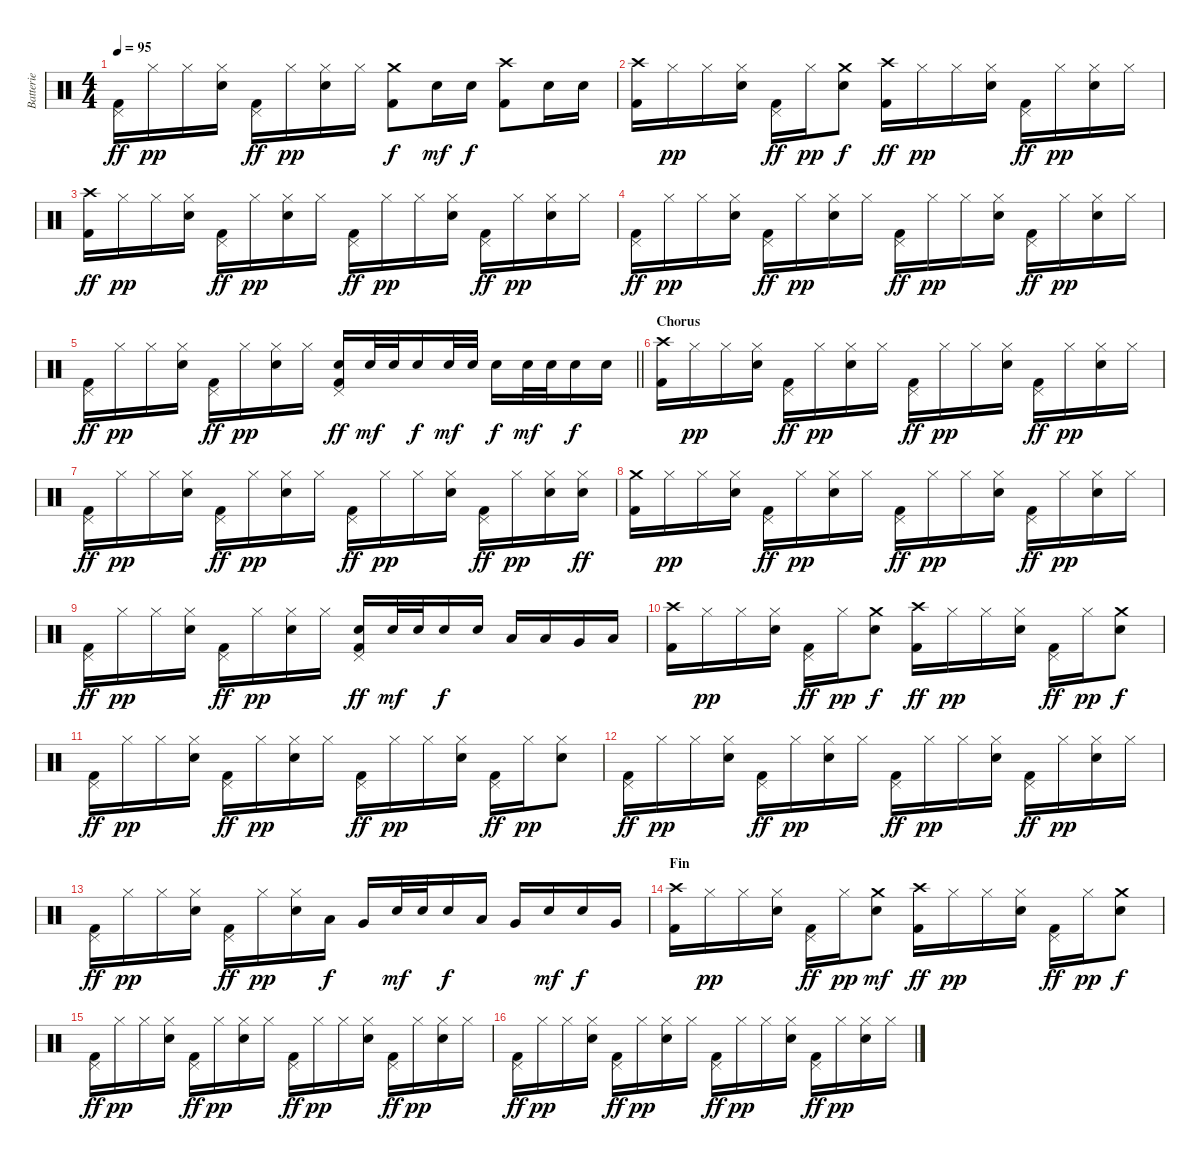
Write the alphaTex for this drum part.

\track ("Batterie" "Batterie") {instrument percussion}
\staff {score}
\articulation defaults
\ts (4 4)
\tempo 95
\clef neutral
\ks c
("Pedal Hi-Hat (hit)" "Kick (hit) 2").16{dy ff} "Hi-Hat (closed)".16{dy pp} "Hi-Hat (closed)".16 ("Hi-Hat (closed)" "Electric Snare (hit)").16 ("Pedal Hi-Hat (hit)" "Kick (hit) 2").16{dy ff} "Hi-Hat (closed)".16{dy pp} ("Hi-Hat (closed)" "Electric Snare (hit)").16 "Hi-Hat (closed)".16 ("Crash medium (hit)" "Kick (hit) 2").8{dy f} "Electric Snare (hit)".16{dy mf} "Electric Snare (hit)".16{dy f} ("Crash high (hit)" "Kick (hit) 2").8 "Electric Snare (hit)".16 "Electric Snare (hit)".16 |
("Crash high (hit)" "Kick (hit) 2").16 "Hi-Hat (closed)".16{dy pp} "Hi-Hat (closed)".16 ("Hi-Hat (closed)" "Electric Snare (hit)").16 ("Pedal Hi-Hat (hit)" "Kick (hit) 2").16{dy ff} "Hi-Hat (closed)".16{dy pp} ("Crash medium (hit)" "Electric Snare (hit)").8{dy f} ("Crash high (hit)" "Kick (hit) 2").16{dy ff} "Hi-Hat (closed)".16{dy pp} "Hi-Hat (closed)".16 ("Hi-Hat (closed)" "Electric Snare (hit)").16 ("Pedal Hi-Hat (hit)" "Kick (hit) 2").16{dy ff} "Hi-Hat (closed)".16{dy pp} ("Hi-Hat (closed)" "Electric Snare (hit)").16 "Hi-Hat (closed)".16 |
("Crash high (hit)" "Kick (hit) 2").16{dy ff} "Hi-Hat (closed)".16{dy pp} "Hi-Hat (closed)".16 ("Hi-Hat (closed)" "Electric Snare (hit)").16 ("Pedal Hi-Hat (hit)" "Kick (hit) 2").16{dy ff} "Hi-Hat (closed)".16{dy pp} ("Hi-Hat (closed)" "Electric Snare (hit)").16 "Hi-Hat (closed)".16 ("Pedal Hi-Hat (hit)" "Kick (hit) 2").16{dy ff} "Hi-Hat (closed)".16{dy pp} "Hi-Hat (closed)".16 ("Hi-Hat (closed)" "Electric Snare (hit)").16 ("Pedal Hi-Hat (hit)" "Kick (hit) 2").16{dy ff} "Hi-Hat (closed)".16{dy pp} ("Hi-Hat (closed)" "Electric Snare (hit)").16 "Hi-Hat (closed)".16 |
("Pedal Hi-Hat (hit)" "Kick (hit) 2").16{dy ff} "Hi-Hat (closed)".16{dy pp} "Hi-Hat (closed)".16 ("Hi-Hat (closed)" "Electric Snare (hit)").16 ("Pedal Hi-Hat (hit)" "Kick (hit) 2").16{dy ff} "Hi-Hat (closed)".16{dy pp} ("Hi-Hat (closed)" "Electric Snare (hit)").16 "Hi-Hat (closed)".16 ("Pedal Hi-Hat (hit)" "Kick (hit) 2").16{dy ff} "Hi-Hat (closed)".16{dy pp} "Hi-Hat (closed)".16 ("Hi-Hat (closed)" "Electric Snare (hit)").16 ("Pedal Hi-Hat (hit)" "Kick (hit) 2").16{dy ff} "Hi-Hat (closed)".16{dy pp} ("Hi-Hat (closed)" "Electric Snare (hit)").16 "Hi-Hat (closed)".16 |
\barLineRight lightlight
("Pedal Hi-Hat (hit)" "Kick (hit) 2").16{dy ff} "Hi-Hat (closed)".16{dy pp} "Hi-Hat (closed)".16 ("Hi-Hat (closed)" "Electric Snare (hit)").16 ("Pedal Hi-Hat (hit)" "Kick (hit) 2").16{dy ff} "Hi-Hat (closed)".16{dy pp} ("Hi-Hat (closed)" "Electric Snare (hit)").16 "Hi-Hat (closed)".16 ("Pedal Hi-Hat (hit)" "Electric Snare (hit)" "Kick (hit) 2").16{dy ff} "Electric Snare (hit)".32{dy mf} "Electric Snare (hit)".32 "Electric Snare (hit)".16{dy f} "Electric Snare (hit)".32{dy mf} "Electric Snare (hit)".32 "Electric Snare (hit)".16{dy f} "Electric Snare (hit)".32{dy mf} "Electric Snare (hit)".32 "Electric Snare (hit)".16{dy f} "Electric Snare (hit)".16 |
\section ("" "Chorus")
("Crash high (hit)" "Kick (hit) 2").16 "Hi-Hat (closed)".16{dy pp} "Hi-Hat (closed)".16 ("Hi-Hat (closed)" "Electric Snare (hit)").16 ("Pedal Hi-Hat (hit)" "Kick (hit) 2").16{dy ff} "Hi-Hat (closed)".16{dy pp} ("Hi-Hat (closed)" "Electric Snare (hit)").16 "Hi-Hat (closed)".16 ("Pedal Hi-Hat (hit)" "Kick (hit) 2").16{dy ff} "Hi-Hat (closed)".16{dy pp} "Hi-Hat (closed)".16 ("Hi-Hat (closed)" "Electric Snare (hit)").16 ("Pedal Hi-Hat (hit)" "Kick (hit) 2").16{dy ff} "Hi-Hat (closed)".16{dy pp} ("Hi-Hat (closed)" "Electric Snare (hit)").16 "Hi-Hat (closed)".16 |
("Pedal Hi-Hat (hit)" "Kick (hit) 2").16{dy ff} "Hi-Hat (closed)".16{dy pp} "Hi-Hat (closed)".16 ("Hi-Hat (closed)" "Electric Snare (hit)").16 ("Pedal Hi-Hat (hit)" "Kick (hit) 2").16{dy ff} "Hi-Hat (closed)".16{dy pp} ("Hi-Hat (closed)" "Electric Snare (hit)").16 "Hi-Hat (closed)".16 ("Pedal Hi-Hat (hit)" "Kick (hit) 2").16{dy ff} "Hi-Hat (closed)".16{dy pp} "Hi-Hat (closed)".16 ("Hi-Hat (closed)" "Electric Snare (hit)").16 ("Pedal Hi-Hat (hit)" "Kick (hit) 2").16{dy ff} "Hi-Hat (closed)".16{dy pp} ("Hi-Hat (closed)" "Electric Snare (hit)").16 ("Hi-Hat (closed)" "Electric Snare (hit)").16{dy ff} |
("Crash medium (hit)" "Kick (hit) 2").16 "Hi-Hat (closed)".16{dy pp} "Hi-Hat (closed)".16 ("Hi-Hat (closed)" "Electric Snare (hit)").16 ("Pedal Hi-Hat (hit)" "Kick (hit) 2").16{dy ff} "Hi-Hat (closed)".16{dy pp} ("Hi-Hat (closed)" "Electric Snare (hit)").16 "Hi-Hat (closed)".16 ("Pedal Hi-Hat (hit)" "Kick (hit) 2").16{dy ff} "Hi-Hat (closed)".16{dy pp} "Hi-Hat (closed)".16 ("Hi-Hat (closed)" "Electric Snare (hit)").16 ("Pedal Hi-Hat (hit)" "Kick (hit) 2").16{dy ff} "Hi-Hat (closed)".16{dy pp} ("Hi-Hat (closed)" "Electric Snare (hit)").16 "Hi-Hat (closed)".16 |
("Pedal Hi-Hat (hit)" "Kick (hit) 2").16{dy ff} "Hi-Hat (closed)".16{dy pp} "Hi-Hat (closed)".16 ("Hi-Hat (closed)" "Electric Snare (hit)").16 ("Pedal Hi-Hat (hit)" "Kick (hit) 2").16{dy ff} "Hi-Hat (closed)".16{dy pp} ("Hi-Hat (closed)" "Electric Snare (hit)").16 "Hi-Hat (closed)".16 ("Pedal Hi-Hat (hit)" "Electric Snare (hit)" "Kick (hit) 2").16{dy ff} "Electric Snare (hit)".32{dy mf} "Electric Snare (hit)".32 "Electric Snare (hit)".16{dy f} "Electric Snare (hit)".16 "Low Tom (hit)".16 "Low Tom (hit)".16 "Very Low Tom (hit)".16 "Low Floor Tom (hit)".16 |
("Crash high (hit)" "Kick (hit) 2").16 "Hi-Hat (closed)".16{dy pp} "Hi-Hat (closed)".16 ("Hi-Hat (closed)" "Electric Snare (hit)").16 ("Pedal Hi-Hat (hit)" "Kick (hit) 2").16{dy ff} "Hi-Hat (closed)".16{dy pp} ("Crash medium (hit)" "Electric Snare (hit)").8{dy f} ("Crash high (hit)" "Kick (hit) 2").16{dy ff} "Hi-Hat (closed)".16{dy pp} "Hi-Hat (closed)".16 ("Hi-Hat (closed)" "Electric Snare (hit)").16 ("Pedal Hi-Hat (hit)" "Kick (hit) 2").16{dy ff} "Hi-Hat (closed)".16{dy pp} ("Crash medium (hit)" "Electric Snare (hit)").8{dy f} |
("Pedal Hi-Hat (hit)" "Kick (hit) 2").16{dy ff} "Hi-Hat (closed)".16{dy pp} "Hi-Hat (closed)".16 ("Hi-Hat (closed)" "Electric Snare (hit)").16 ("Pedal Hi-Hat (hit)" "Kick (hit) 2").16{dy ff} "Hi-Hat (closed)".16{dy pp} ("Hi-Hat (closed)" "Electric Snare (hit)").16 "Hi-Hat (closed)".16 ("Pedal Hi-Hat (hit)" "Kick (hit) 2").16{dy ff} "Hi-Hat (closed)".16{dy pp} "Hi-Hat (closed)".16 ("Hi-Hat (closed)" "Electric Snare (hit)").16 ("Pedal Hi-Hat (hit)" "Kick (hit) 2").16{dy ff} "Hi-Hat (closed)".16{dy pp} ("Hi-Hat (closed)" "Electric Snare (hit)").8 |
("Pedal Hi-Hat (hit)" "Kick (hit) 2").16{dy ff} "Hi-Hat (closed)".16{dy pp} "Hi-Hat (closed)".16 ("Hi-Hat (closed)" "Electric Snare (hit)").16 ("Pedal Hi-Hat (hit)" "Kick (hit) 2").16{dy ff} "Hi-Hat (closed)".16{dy pp} ("Hi-Hat (closed)" "Electric Snare (hit)").16 "Hi-Hat (closed)".16 ("Pedal Hi-Hat (hit)" "Kick (hit) 2").16{dy ff} "Hi-Hat (closed)".16{dy pp} "Hi-Hat (closed)".16 ("Hi-Hat (closed)" "Electric Snare (hit)").16 ("Pedal Hi-Hat (hit)" "Kick (hit) 2").16{dy ff} "Hi-Hat (closed)".16{dy pp} ("Hi-Hat (closed)" "Electric Snare (hit)").16 "Hi-Hat (closed)".16 |
("Pedal Hi-Hat (hit)" "Kick (hit) 2").16{dy ff} "Hi-Hat (closed)".16{dy pp} "Hi-Hat (closed)".16 ("Hi-Hat (closed)" "Electric Snare (hit)").16 ("Pedal Hi-Hat (hit)" "Kick (hit) 2").16{dy ff} "Hi-Hat (closed)".16{dy pp} ("Hi-Hat (closed)" "Electric Snare (hit)").16 "Low Tom (hit)".16{dy f} "Very Low Tom (hit)".16 "Electric Snare (hit)".32{dy mf} "Electric Snare (hit)".32 "Electric Snare (hit)".16{dy f} "Low Tom (hit)".16 "Very Low Tom (hit)".16 "Electric Snare (hit)".16{dy mf} "Electric Snare (hit)".16{dy f} "Very Low Tom (hit)".16 |
\section ("" "Fin")
("Crash high (hit)" "Kick (hit) 2").16{volume 0} "Hi-Hat (closed)".16{dy pp} "Hi-Hat (closed)".16 ("Hi-Hat (closed)" "Electric Snare (hit)").16 ("Pedal Hi-Hat (hit)" "Kick (hit) 2").16{dy ff} "Hi-Hat (closed)".16{dy pp} ("Crash medium (hit)" "Electric Snare (hit)").8{dy mf} ("Crash high (hit)" "Kick (hit) 2").16{dy ff} "Hi-Hat (closed)".16{dy pp} "Hi-Hat (closed)".16 ("Hi-Hat (closed)" "Electric Snare (hit)").16 ("Pedal Hi-Hat (hit)" "Kick (hit) 2").16{dy ff} "Hi-Hat (closed)".16{dy pp} ("Crash medium (hit)" "Electric Snare (hit)").8{dy f} |
("Pedal Hi-Hat (hit)" "Kick (hit) 2").16{dy ff} "Hi-Hat (closed)".16{dy pp} "Hi-Hat (closed)".16 ("Hi-Hat (closed)" "Electric Snare (hit)").16 ("Pedal Hi-Hat (hit)" "Kick (hit) 2").16{dy ff} "Hi-Hat (closed)".16{dy pp} ("Hi-Hat (closed)" "Electric Snare (hit)").16 "Hi-Hat (closed)".16 ("Pedal Hi-Hat (hit)" "Kick (hit) 2").16{dy ff} "Hi-Hat (closed)".16{dy pp} "Hi-Hat (closed)".16 ("Hi-Hat (closed)" "Electric Snare (hit)").16 ("Pedal Hi-Hat (hit)" "Kick (hit) 2").16{dy ff} "Hi-Hat (closed)".16{dy pp} ("Hi-Hat (closed)" "Electric Snare (hit)").16 "Hi-Hat (closed)".16 |
("Pedal Hi-Hat (hit)" "Kick (hit) 2").16{dy ff} "Hi-Hat (closed)".16{dy pp} "Hi-Hat (closed)".16 ("Hi-Hat (closed)" "Electric Snare (hit)").16 ("Pedal Hi-Hat (hit)" "Kick (hit) 2").16{dy ff} "Hi-Hat (closed)".16{dy pp} ("Hi-Hat (closed)" "Electric Snare (hit)").16 "Hi-Hat (closed)".16 ("Pedal Hi-Hat (hit)" "Kick (hit) 2").16{dy ff} "Hi-Hat (closed)".16{dy pp} "Hi-Hat (closed)".16 ("Hi-Hat (closed)" "Electric Snare (hit)").16 ("Pedal Hi-Hat (hit)" "Kick (hit) 2").16{dy ff} "Hi-Hat (closed)".16{dy pp} ("Hi-Hat (closed)" "Electric Snare (hit)").16 "Hi-Hat (closed)".16
